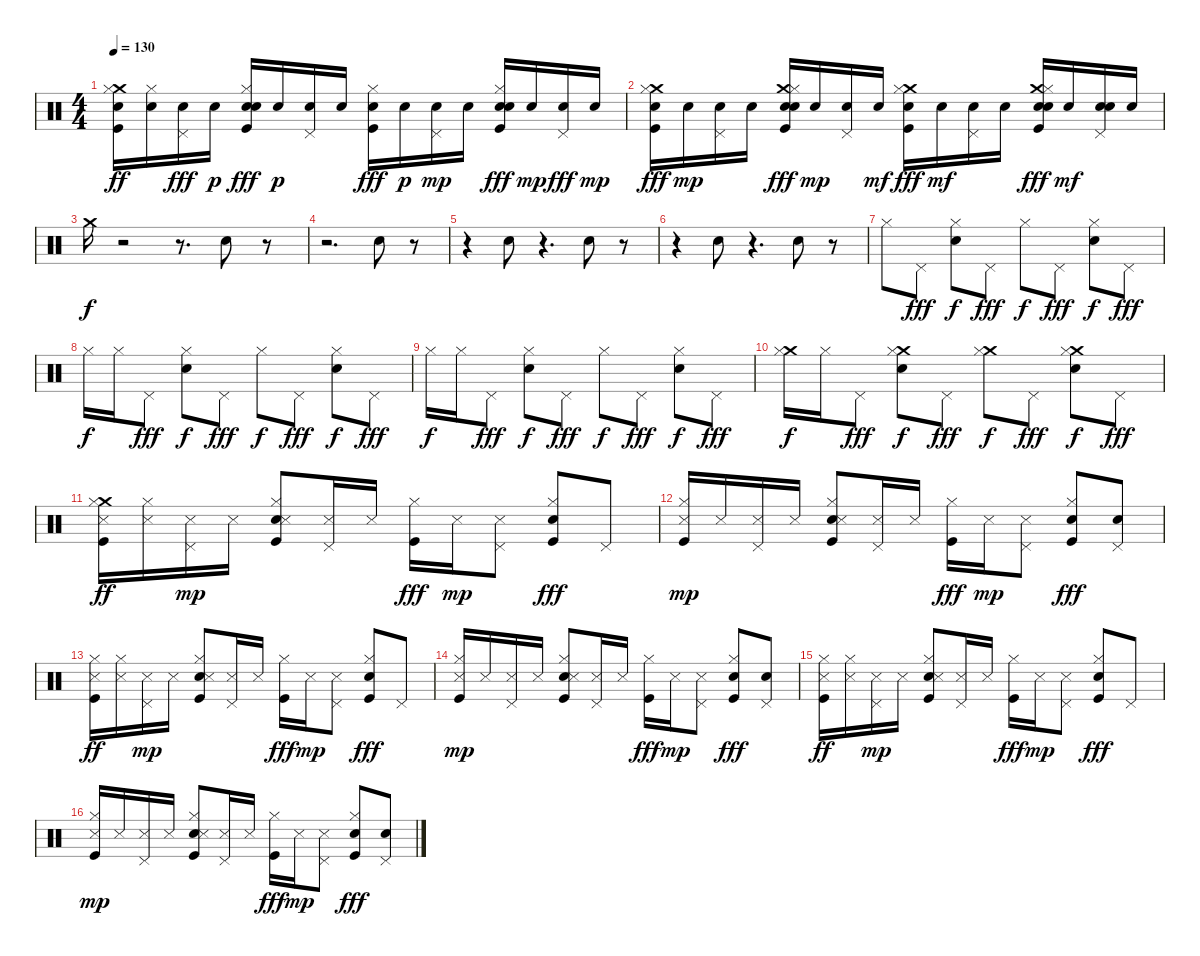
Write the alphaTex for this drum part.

\track "" {instrument percussion}
\staff {score}
\articulation defaults
\ts (4 4)
\tempo 130
\clef neutral
\ks c
("Kick (hit)" "Electric Snare (hit)" "Crash medium (hit)" "Hi-Hat (closed)").16{dy ff} ("Electric Snare (hit)" "Hi-Hat (closed)").16 ("Electric Snare (hit)" "Pedal Hi-Hat (hit)").16{dy fff} "Electric Snare (hit)".16{dy p} ("Hand Clap (hit)" "Electric Snare (hit)" "Kick (hit)" "Hi-Hat (closed)").16{dy fff} "Electric Snare (hit)".16{dy p} ("Pedal Hi-Hat (hit)" "Electric Snare (hit)").16 "Electric Snare (hit)".16 ("Electric Snare (hit)" "Kick (hit)" "Hi-Hat (closed)").16{dy fff} "Electric Snare (hit)".16{dy p} ("Pedal Hi-Hat (hit)" "Electric Snare (hit)").16{dy mp} "Electric Snare (hit)".16 ("Hand Clap (hit)" "Electric Snare (hit)" "Kick (hit)" "Hi-Hat (closed)").16{dy fff} "Electric Snare (hit)".16{dy mp} ("Electric Snare (hit)" "Pedal Hi-Hat (hit)").16{dy fff} "Electric Snare (hit)".16{dy mp} |
("Crash medium (hit)" "Electric Snare (hit)" "Kick (hit)" "Hi-Hat (closed)").16{dy fff} "Electric Snare (hit)".16{dy mp} ("Pedal Hi-Hat (hit)" "Electric Snare (hit)").16 "Electric Snare (hit)".16 ("Hand Clap (hit)" "Crash medium (hit)" "Electric Snare (hit)" "Kick (hit)" "Hi-Hat (closed)").16{dy fff} "Electric Snare (hit)".16{dy mp} ("Pedal Hi-Hat (hit)" "Electric Snare (hit)").16 "Electric Snare (hit)".16{dy mf} ("Crash medium (hit)" "Electric Snare (hit)" "Kick (hit)" "Hi-Hat (closed)").16{dy fff} "Electric Snare (hit)".16{dy mf} ("Pedal Hi-Hat (hit)" "Electric Snare (hit)").16 "Electric Snare (hit)".16 ("Hand Clap (hit)" "Crash medium (hit)" "Electric Snare (hit)" "Kick (hit)" "Hi-Hat (closed)").16{dy fff} "Electric Snare (hit)".16{dy mf} ("Hand Clap (hit)" "Pedal Hi-Hat (hit)" "Electric Snare (hit)").16 "Electric Snare (hit)".16 |
"Crash medium (hit)".16{dy f} r.2 r.8{d} "Hand Clap (hit)".8 r.8 |
r.2{d} "Hand Clap (hit)".8 r.8 |
r.4 "Hand Clap (hit)".8 r.4{d} "Hand Clap (hit)".8 r.8 |
r.4 "Hand Clap (hit)".8 r.4{d} "Hand Clap (hit)".8 r.8 |
"Hi-Hat (closed)".8 "Pedal Hi-Hat (hit)".8{dy fff} ("Hand Clap (hit)" "Hi-Hat (closed)").8{dy f} "Pedal Hi-Hat (hit)".8{dy fff} "Hi-Hat (closed)".8{dy f} "Pedal Hi-Hat (hit)".8{dy fff} ("Hand Clap (hit)" "Hi-Hat (closed)").8{dy f} "Pedal Hi-Hat (hit)".8{dy fff} |
"Hi-Hat (closed)".16{dy f} "Hi-Hat (closed)".16 "Pedal Hi-Hat (hit)".8{dy fff} ("Hand Clap (hit)" "Hi-Hat (closed)").8{dy f} "Pedal Hi-Hat (hit)".8{dy fff} "Hi-Hat (closed)".8{dy f} "Pedal Hi-Hat (hit)".8{dy fff} ("Hand Clap (hit)" "Hi-Hat (closed)").8{dy f} "Pedal Hi-Hat (hit)".8{dy fff} |
"Hi-Hat (closed)".16{dy f} "Hi-Hat (closed)".16 "Pedal Hi-Hat (hit)".8{dy fff} ("Hand Clap (hit)" "Hi-Hat (closed)").8{dy f} "Pedal Hi-Hat (hit)".8{dy fff} "Hi-Hat (closed)".8{dy f} "Pedal Hi-Hat (hit)".8{dy fff} ("Hand Clap (hit)" "Hi-Hat (closed)").8{dy f} "Pedal Hi-Hat (hit)".8{dy fff} |
("Crash medium (hit)" "Hi-Hat (closed)").16{dy f} "Hi-Hat (closed)".16 "Pedal Hi-Hat (hit)".8{dy fff} ("Hand Clap (hit)" "Crash medium (hit)" "Hi-Hat (closed)").8{dy f} "Pedal Hi-Hat (hit)".8{dy fff} ("Crash medium (hit)" "Hi-Hat (closed)").8{dy f} "Pedal Hi-Hat (hit)".8{dy fff} ("Hand Clap (hit)" "Crash medium (hit)" "Hi-Hat (closed)").8{dy f} "Pedal Hi-Hat (hit)".8{dy fff} |
("Crash medium (hit)" "Kick (hit)" "Snare (side stick) 3" "Hi-Hat (closed)").16{dy ff} ("Snare (side stick) 3" "Hi-Hat (closed)").16 ("Pedal Hi-Hat (hit)" "Snare (side stick) 3").16{dy mp} "Snare (side stick) 3".16 ("Hand Clap (hit)" "Kick (hit)" "Snare (side stick) 3" "Hi-Hat (closed)").8 ("Pedal Hi-Hat (hit)" "Snare (side stick) 3").16 "Snare (side stick) 3".16 ("Kick (hit)" "Hi-Hat (closed)").16{dy fff} "Snare (side stick) 3".16{dy mp} ("Pedal Hi-Hat (hit)" "Snare (side stick) 3").8 ("Hand Clap (hit)" "Kick (hit)" "Hi-Hat (closed)").8{dy fff} "Pedal Hi-Hat (hit)".8 |
("Kick (hit)" "Snare (side stick) 3" "Hi-Hat (closed)").16{dy mp} "Snare (side stick) 3".16 ("Pedal Hi-Hat (hit)" "Snare (side stick) 3").16 "Snare (side stick) 3".16 ("Hand Clap (hit)" "Kick (hit)" "Snare (side stick) 3" "Hi-Hat (closed)").8 ("Pedal Hi-Hat (hit)" "Snare (side stick) 3").16 "Snare (side stick) 3".16 ("Kick (hit)" "Hi-Hat (closed)").16{dy fff} "Snare (side stick) 3".16{dy mp} ("Pedal Hi-Hat (hit)" "Snare (side stick) 3").8 ("Hand Clap (hit)" "Kick (hit)" "Hi-Hat (closed)").8{dy fff} ("Hand Clap (hit)" "Pedal Hi-Hat (hit)").8 |
("Kick (hit)" "Snare (side stick) 3" "Hi-Hat (closed)").16{dy ff} ("Snare (side stick) 3" "Hi-Hat (closed)").16 ("Pedal Hi-Hat (hit)" "Snare (side stick) 3").16{dy mp} "Snare (side stick) 3".16 ("Hand Clap (hit)" "Kick (hit)" "Snare (side stick) 3" "Hi-Hat (closed)").8 ("Pedal Hi-Hat (hit)" "Snare (side stick) 3").16 "Snare (side stick) 3".16 ("Kick (hit)" "Hi-Hat (closed)").16{dy fff} "Snare (side stick) 3".16{dy mp} ("Pedal Hi-Hat (hit)" "Snare (side stick) 3").8 ("Hand Clap (hit)" "Kick (hit)" "Hi-Hat (closed)").8{dy fff} "Pedal Hi-Hat (hit)".8 |
("Kick (hit)" "Snare (side stick) 3" "Hi-Hat (closed)").16{dy mp} "Snare (side stick) 3".16 ("Pedal Hi-Hat (hit)" "Snare (side stick) 3").16 "Snare (side stick) 3".16 ("Hand Clap (hit)" "Kick (hit)" "Snare (side stick) 3" "Hi-Hat (closed)").8 ("Pedal Hi-Hat (hit)" "Snare (side stick) 3").16 "Snare (side stick) 3".16 ("Kick (hit)" "Hi-Hat (closed)").16{dy fff} "Snare (side stick) 3".16{dy mp} ("Pedal Hi-Hat (hit)" "Snare (side stick) 3").8 ("Hand Clap (hit)" "Kick (hit)" "Hi-Hat (closed)").8{dy fff} ("Hand Clap (hit)" "Pedal Hi-Hat (hit)").8 |
("Kick (hit)" "Snare (side stick) 3" "Hi-Hat (closed)").16{dy ff} ("Snare (side stick) 3" "Hi-Hat (closed)").16 ("Pedal Hi-Hat (hit)" "Snare (side stick) 3").16{dy mp} "Snare (side stick) 3".16 ("Hand Clap (hit)" "Kick (hit)" "Snare (side stick) 3" "Hi-Hat (closed)").8 ("Pedal Hi-Hat (hit)" "Snare (side stick) 3").16 "Snare (side stick) 3".16 ("Kick (hit)" "Hi-Hat (closed)").16{dy fff} "Snare (side stick) 3".16{dy mp} ("Pedal Hi-Hat (hit)" "Snare (side stick) 3").8 ("Hand Clap (hit)" "Kick (hit)" "Hi-Hat (closed)").8{dy fff} "Pedal Hi-Hat (hit)".8 |
("Kick (hit)" "Snare (side stick) 3" "Hi-Hat (closed)").16{dy mp} "Snare (side stick) 3".16 ("Pedal Hi-Hat (hit)" "Snare (side stick) 3").16 "Snare (side stick) 3".16 ("Hand Clap (hit)" "Kick (hit)" "Snare (side stick) 3" "Hi-Hat (closed)").8 ("Pedal Hi-Hat (hit)" "Snare (side stick) 3").16 "Snare (side stick) 3".16 ("Kick (hit)" "Hi-Hat (closed)").16{dy fff} "Snare (side stick) 3".16{dy mp} ("Pedal Hi-Hat (hit)" "Snare (side stick) 3").8 ("Hand Clap (hit)" "Kick (hit)" "Hi-Hat (closed)").8{dy fff} ("Hand Clap (hit)" "Pedal Hi-Hat (hit)").8
